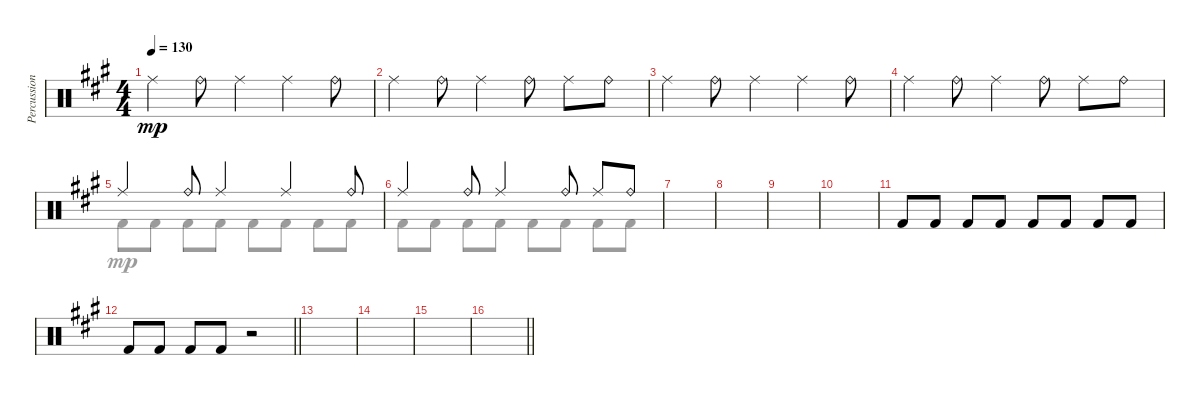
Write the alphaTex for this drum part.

\track ("Percussion" "Percussion") {instrument percussion}
\staff {score}
\articulation defaults
\voice
\ts (4 4)
\tempo 130
\clef neutral
\ks a "Ride (middle)".4{dy mp balance 0} "Ride (bell)".8 "Ride (middle)".4 "Ride (middle)".4 "Ride (bell)".8
|
"Ride (middle)".4 "Ride (bell)".8 "Ride (middle)".4 "Ride (bell)".8 "Ride (middle)".8 "Ride (bell)".8 |
"Ride (middle)".4{balance 16} "Ride (bell)".8 "Ride (middle)".4 "Ride (middle)".4 "Ride (bell)".8 |
"Ride (middle)".4 "Ride (bell)".8 "Ride (middle)".4 "Ride (bell)".8 "Ride (middle)".8 "Ride (bell)".8 |
"Ride (middle)".4{balance 0} "Ride (bell)".8 "Ride (middle)".4 "Ride (middle)".4 "Ride (bell)".8 |
"Ride (middle)".4 "Ride (bell)".8 "Ride (middle)".4 "Ride (bell)".8 "Ride (middle)".8 "Ride (bell)".8 |
|
|
|
|
"Kick (hit) 2".8 "Kick (hit) 2".8 "Kick (hit) 2".8 "Kick (hit) 2".8 "Kick (hit) 2".8 "Kick (hit) 2".8 "Kick (hit) 2".8 "Kick (hit) 2".8 |
\barLineRight lightlight "Kick (hit) 2".8 "Kick (hit) 2".8 "Kick (hit) 2".8 "Kick (hit) 2".8
r.2 |
|
|
|
\barLineRight lightlight
\voice
\clef neutral
\ottava regular
\simile none
\ks a
|
|
|
|
"Kick (hit) 2".8 "Kick (hit) 2".8 "Kick (hit) 2".8 "Kick (hit) 2".8 "Kick (hit) 2".8 "Kick (hit) 2".8 "Kick (hit) 2".8 "Kick (hit) 2".8 |
"Kick (hit) 2".8 "Kick (hit) 2".8 "Kick (hit) 2".8 "Kick (hit) 2".8 "Kick (hit) 2".8 "Kick (hit) 2".8 "Kick (hit) 2".8 "Kick (hit) 2".8 |
|
|
|
|
|
\barLineRight lightlight
|
|
|
|
\barLineRight lightlight
